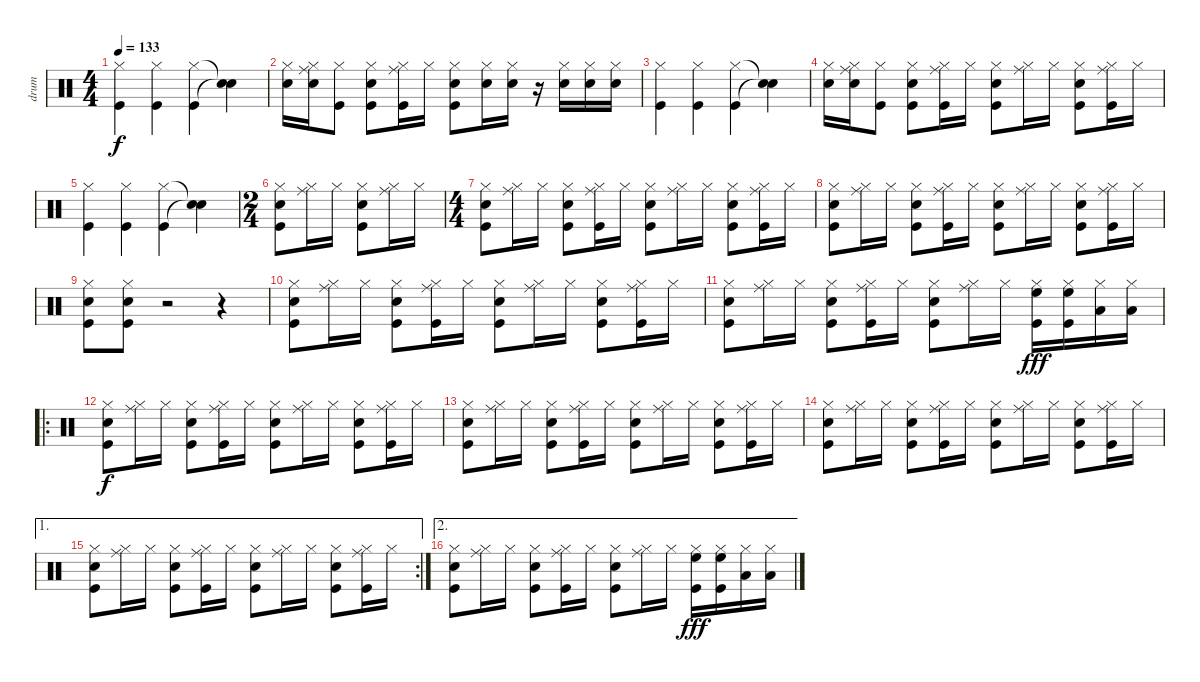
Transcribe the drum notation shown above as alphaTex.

\track ("drum" "drum") {instrument percussion}
\staff {score}
\articulation defaults
\ts (4 4)
\tempo 133
\clef neutral
\ks c
("Hi-Hat (closed)" "Kick (hit)").4{dy f} ("Hi-Hat (closed)" "Kick (hit)").4 ("Hi-Hat (closed)" "Kick (hit)").4 ("Snare (hit)"{t} "Snare (hit)"{t}).4 |
("Hi-Hat (closed)" "Snare (hit) 2").16 ("Hi-Hat (closed)" "Snare (hit) 2" "Ride (middle)").16 ("Hi-Hat (closed)" "Kick (hit)").8 ("Hi-Hat (closed)" "Snare (hit) 2" "Kick (hit)").8 ("Hi-Hat (closed)" "Ride (middle)" "Kick (hit)").16 "Hi-Hat (closed)".16 ("Hi-Hat (closed)" "Snare (hit) 2" "Kick (hit)").8 ("Hi-Hat (closed)" "Snare (hit) 2").16 ("Hi-Hat (closed)" "Snare (hit) 2").16 r.16 ("Hi-Hat (closed)" "Snare (hit) 2").16 ("Hi-Hat (closed)" "Snare (hit) 2").16 ("Hi-Hat (closed)" "Snare (hit) 2").16 |
("Hi-Hat (closed)" "Kick (hit)").4 ("Hi-Hat (closed)" "Kick (hit)").4 ("Hi-Hat (closed)" "Kick (hit)").4 ("Snare (hit)"{t} "Snare (hit)"{t}).4 |
("Hi-Hat (closed)" "Snare (hit) 2").16 ("Hi-Hat (closed)" "Snare (hit) 2" "Ride (middle)").16 ("Hi-Hat (closed)" "Kick (hit)").8 ("Hi-Hat (closed)" "Snare (hit) 2" "Kick (hit)").8 ("Hi-Hat (closed)" "Ride (middle)" "Kick (hit)").16 "Hi-Hat (closed)".16 ("Hi-Hat (closed)" "Snare (hit) 2" "Kick (hit)").8 ("Hi-Hat (closed)" "Ride (middle)").16 "Hi-Hat (closed)".16 ("Hi-Hat (closed)" "Snare (hit) 2" "Kick (hit)").8 ("Hi-Hat (closed)" "Ride (middle)" "Kick (hit)").16 "Hi-Hat (closed)".16 |
("Hi-Hat (closed)" "Kick (hit)").4 ("Hi-Hat (closed)" "Kick (hit)").4 ("Hi-Hat (closed)" "Kick (hit)").4 ("Snare (hit)"{t} "Snare (hit)"{t}).4 |
\ts (2 4)
("Hi-Hat (closed)" "Snare (hit) 2" "Kick (hit)").8 ("Hi-Hat (closed)" "Ride (middle)").16 "Hi-Hat (closed)".16 ("Hi-Hat (closed)" "Snare (hit) 2" "Kick (hit)").8 ("Hi-Hat (closed)" "Ride (middle)").16 "Hi-Hat (closed)".16 |
\ts (4 4)
("Hi-Hat (closed)" "Snare (hit) 2" "Kick (hit)").8 ("Hi-Hat (closed)" "Ride (middle)").16 "Hi-Hat (closed)".16 ("Hi-Hat (closed)" "Snare (hit) 2" "Kick (hit)").8 ("Hi-Hat (closed)" "Ride (middle)" "Kick (hit)").16 "Hi-Hat (closed)".16 ("Hi-Hat (closed)" "Snare (hit) 2" "Kick (hit)").8 ("Hi-Hat (closed)" "Ride (middle)").16 "Hi-Hat (closed)".16 ("Hi-Hat (closed)" "Snare (hit) 2" "Kick (hit)").8 ("Hi-Hat (closed)" "Ride (middle)" "Kick (hit)").16 "Hi-Hat (closed)".16 |
("Hi-Hat (closed)" "Snare (hit) 2" "Kick (hit)").8 ("Hi-Hat (closed)" "Ride (middle)").16 "Hi-Hat (closed)".16 ("Hi-Hat (closed)" "Snare (hit) 2" "Kick (hit)").8 ("Hi-Hat (closed)" "Ride (middle)" "Kick (hit)").16 "Hi-Hat (closed)".16 ("Hi-Hat (closed)" "Snare (hit) 2" "Kick (hit)").8 ("Hi-Hat (closed)" "Ride (middle)").16 "Hi-Hat (closed)".16 ("Hi-Hat (closed)" "Snare (hit) 2" "Kick (hit)").8 ("Hi-Hat (closed)" "Ride (middle)" "Kick (hit)").16 "Hi-Hat (closed)".16 |
("Hi-Hat (closed)" "Snare (hit) 2" "Kick (hit)").8 ("Hi-Hat (closed)" "Snare (hit) 2" "Kick (hit)").8 r.2 r.4 |
("Hi-Hat (closed)" "Snare (hit) 2" "Kick (hit)").8 ("Hi-Hat (closed)" "Ride (middle)").16 "Hi-Hat (closed)".16 ("Hi-Hat (closed)" "Snare (hit) 2" "Kick (hit)").8 ("Hi-Hat (closed)" "Ride (middle)" "Kick (hit)").16 "Hi-Hat (closed)".16 ("Hi-Hat (closed)" "Snare (hit) 2" "Kick (hit)").8 ("Hi-Hat (closed)" "Ride (middle)").16 "Hi-Hat (closed)".16 ("Hi-Hat (closed)" "Snare (hit) 2" "Kick (hit)").8 ("Hi-Hat (closed)" "Ride (middle)" "Kick (hit)").16 "Hi-Hat (closed)".16 |
("Hi-Hat (closed)" "Snare (hit) 2" "Kick (hit)").8 ("Hi-Hat (closed)" "Ride (middle)").16 "Hi-Hat (closed)".16 ("Hi-Hat (closed)" "Snare (hit) 2" "Kick (hit)").8 ("Hi-Hat (closed)" "Ride (middle)" "Kick (hit)").16 "Hi-Hat (closed)".16 ("Hi-Hat (closed)" "Snare (hit) 2" "Kick (hit)").8 ("Hi-Hat (closed)" "Ride (middle)").16 "Hi-Hat (closed)".16 ("Hi-Hat (closed)" "High Floor Tom (hit)" "Kick (hit)").16{dy fff} ("Hi-Hat (closed)" "High Floor Tom (hit)" "Kick (hit)").16 ("Hi-Hat (closed)" "Low Tom (hit)").16 ("Hi-Hat (closed)" "Low Tom (hit)").16 |
\ro
("Hi-Hat (closed)" "Snare (hit) 2" "Kick (hit)").8{dy f} ("Hi-Hat (closed)" "Ride (middle)").16 "Hi-Hat (closed)".16 ("Hi-Hat (closed)" "Snare (hit) 2" "Kick (hit)").8 ("Hi-Hat (closed)" "Ride (middle)" "Kick (hit)").16 "Hi-Hat (closed)".16 ("Hi-Hat (closed)" "Snare (hit) 2" "Kick (hit)").8 ("Hi-Hat (closed)" "Ride (middle)").16 "Hi-Hat (closed)".16 ("Hi-Hat (closed)" "Snare (hit) 2" "Kick (hit)").8 ("Hi-Hat (closed)" "Ride (middle)" "Kick (hit)").16 "Hi-Hat (closed)".16 |
("Hi-Hat (closed)" "Snare (hit) 2" "Kick (hit)").8 ("Hi-Hat (closed)" "Ride (middle)").16 "Hi-Hat (closed)".16 ("Hi-Hat (closed)" "Snare (hit) 2" "Kick (hit)").8 ("Hi-Hat (closed)" "Ride (middle)" "Kick (hit)").16 "Hi-Hat (closed)".16 ("Hi-Hat (closed)" "Snare (hit) 2" "Kick (hit)").8 ("Hi-Hat (closed)" "Ride (middle)").16 "Hi-Hat (closed)".16 ("Hi-Hat (closed)" "Snare (hit) 2" "Kick (hit)").8 ("Hi-Hat (closed)" "Ride (middle)" "Kick (hit)").16 "Hi-Hat (closed)".16 |
("Hi-Hat (closed)" "Snare (hit) 2" "Kick (hit)").8 ("Hi-Hat (closed)" "Ride (middle)").16 "Hi-Hat (closed)".16 ("Hi-Hat (closed)" "Snare (hit) 2" "Kick (hit)").8 ("Hi-Hat (closed)" "Ride (middle)" "Kick (hit)").16 "Hi-Hat (closed)".16 ("Hi-Hat (closed)" "Snare (hit) 2" "Kick (hit)").8 ("Hi-Hat (closed)" "Ride (middle)").16 "Hi-Hat (closed)".16 ("Hi-Hat (closed)" "Snare (hit) 2" "Kick (hit)").8 ("Hi-Hat (closed)" "Ride (middle)" "Kick (hit)").16 "Hi-Hat (closed)".16 |
\ae 1
\rc 2
("Hi-Hat (closed)" "Snare (hit) 2" "Kick (hit)").8 ("Hi-Hat (closed)" "Ride (middle)").16 "Hi-Hat (closed)".16 ("Hi-Hat (closed)" "Snare (hit) 2" "Kick (hit)").8 ("Hi-Hat (closed)" "Ride (middle)" "Kick (hit)").16 "Hi-Hat (closed)".16 ("Hi-Hat (closed)" "Snare (hit) 2" "Kick (hit)").8 ("Hi-Hat (closed)" "Ride (middle)").16 "Hi-Hat (closed)".16 ("Hi-Hat (closed)" "Snare (hit) 2" "Kick (hit)").8 ("Hi-Hat (closed)" "Ride (middle)" "Kick (hit)").16 "Hi-Hat (closed)".16 |
\ae 2
("Hi-Hat (closed)" "Snare (hit) 2" "Kick (hit)").8 ("Hi-Hat (closed)" "Ride (middle)").16 "Hi-Hat (closed)".16 ("Hi-Hat (closed)" "Snare (hit) 2" "Kick (hit)").8 ("Hi-Hat (closed)" "Ride (middle)" "Kick (hit)").16 "Hi-Hat (closed)".16 ("Hi-Hat (closed)" "Snare (hit) 2" "Kick (hit)").8 ("Hi-Hat (closed)" "Ride (middle)").16 "Hi-Hat (closed)".16 ("Hi-Hat (closed)" "High Floor Tom (hit)" "Kick (hit)").16{dy fff} ("Hi-Hat (closed)" "High Floor Tom (hit)" "Kick (hit)").16 ("Hi-Hat (closed)" "Low Tom (hit)").16 ("Hi-Hat (closed)" "Low Tom (hit)").16
